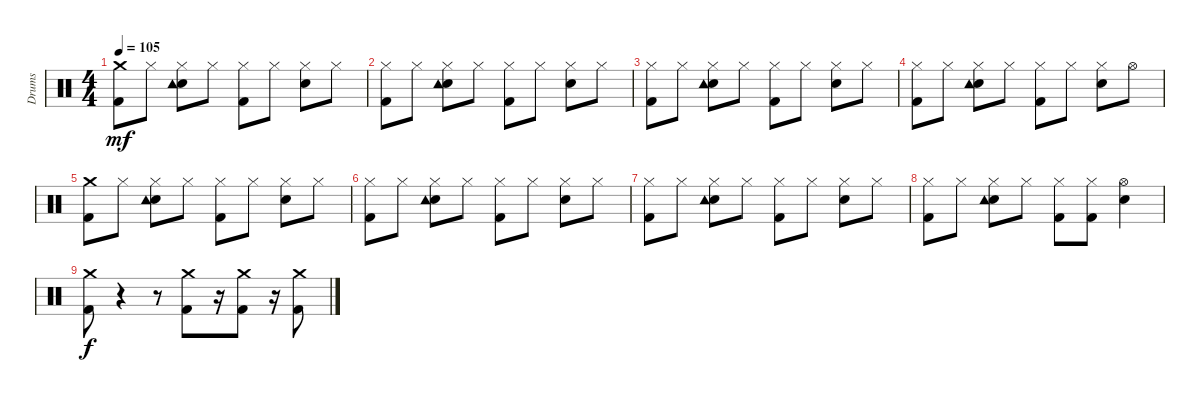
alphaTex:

\track ("Drums" "Drums") {instrument percussion}
\staff {score}
\articulation defaults
\ts (4 4)
\tempo 105
\clef neutral
\ks c
("Crash medium (hit)" "Kick (hit) 2").8{dy mf} "Hi-Hat (closed)".8 ("Hi-Hat (closed)" "Snare (hit) 2" "Tambourine (hit)").8 "Hi-Hat (closed)".8 ("Hi-Hat (closed)" "Kick (hit) 2").8 "Hi-Hat (closed)".8 ("Hi-Hat (closed)" "Snare (hit) 2").8 "Hi-Hat (closed)".8 |
("Hi-Hat (closed)" "Kick (hit) 2").8 "Hi-Hat (closed)".8 ("Hi-Hat (closed)" "Snare (hit) 2" "Tambourine (hit)").8 "Hi-Hat (closed)".8 ("Hi-Hat (closed)" "Kick (hit) 2").8 "Hi-Hat (closed)".8 ("Hi-Hat (closed)" "Snare (hit) 2").8 "Hi-Hat (closed)".8 |
("Hi-Hat (closed)" "Kick (hit) 2").8 "Hi-Hat (closed)".8 ("Hi-Hat (closed)" "Snare (hit) 2" "Tambourine (hit)").8 "Hi-Hat (closed)".8 ("Hi-Hat (closed)" "Kick (hit) 2").8 "Hi-Hat (closed)".8 ("Hi-Hat (closed)" "Snare (hit) 2").8 "Hi-Hat (closed)".8 |
("Hi-Hat (closed)" "Kick (hit) 2").8 "Hi-Hat (closed)".8 ("Hi-Hat (closed)" "Snare (hit) 2" "Tambourine (hit)").8 "Hi-Hat (closed)".8 ("Hi-Hat (closed)" "Kick (hit) 2").8 "Hi-Hat (closed)".8 ("Hi-Hat (closed)" "Snare (hit) 2").8 "Hi-Hat (open)".8 |
("Crash medium (hit)" "Kick (hit) 2").8 "Hi-Hat (closed)".8 ("Hi-Hat (closed)" "Snare (hit) 2" "Tambourine (hit)").8 "Hi-Hat (closed)".8 ("Hi-Hat (closed)" "Kick (hit) 2").8 "Hi-Hat (closed)".8 ("Hi-Hat (closed)" "Snare (hit) 2").8 "Hi-Hat (closed)".8 |
("Hi-Hat (closed)" "Kick (hit) 2").8 "Hi-Hat (closed)".8 ("Hi-Hat (closed)" "Snare (hit) 2" "Tambourine (hit)").8 "Hi-Hat (closed)".8 ("Hi-Hat (closed)" "Kick (hit) 2").8 "Hi-Hat (closed)".8 ("Hi-Hat (closed)" "Snare (hit) 2").8 "Hi-Hat (closed)".8 |
("Hi-Hat (closed)" "Kick (hit) 2").8 "Hi-Hat (closed)".8 ("Hi-Hat (closed)" "Snare (hit) 2" "Tambourine (hit)").8 "Hi-Hat (closed)".8 ("Hi-Hat (closed)" "Kick (hit) 2").8 "Hi-Hat (closed)".8 ("Hi-Hat (closed)" "Snare (hit) 2").8 "Hi-Hat (closed)".8 |
("Hi-Hat (closed)" "Kick (hit) 2").8 "Hi-Hat (closed)".8 ("Hi-Hat (closed)" "Snare (hit) 2" "Tambourine (hit)").8 "Hi-Hat (closed)".8 ("Hi-Hat (closed)" "Kick (hit) 2").8 ("Hi-Hat (closed)" "Kick (hit) 2").8 ("Hi-Hat (open)" "Snare (hit) 2").4 |
("Crash medium (hit)" "Kick (hit) 2").8{dy f} r.4 r.8 ("Crash medium (hit)" "Kick (hit) 2").8 r.16 ("Crash medium (hit)" "Kick (hit) 2").8 r.16 ("Crash medium (hit)" "Kick (hit) 2").8
